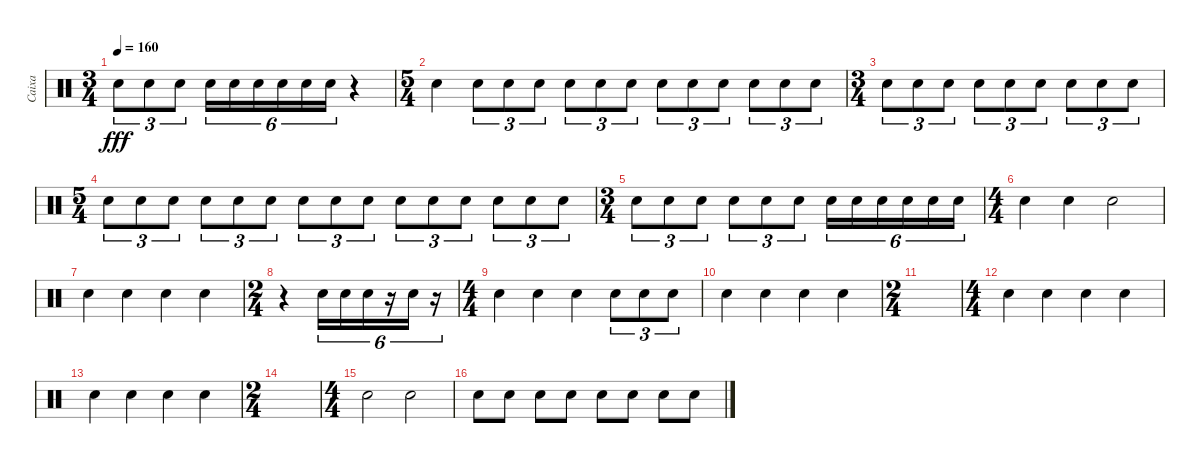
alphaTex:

\track ("Caixa" "Caixa") {instrument percussion}
\staff {score}
\articulation defaults
\ts (3 4)
\tempo 160
\clef neutral
\ks c "Electric Snare (hit)".8{tu (3 2) dy fff} "Electric Snare (hit)".8{tu (3 2)} "Electric Snare (hit)".8{tu (3 2)} "Electric Snare (hit)".16{tu (6 4)} "Electric Snare (hit)".16{tu (6 4)} "Electric Snare (hit)".16{tu (6 4)} "Electric Snare (hit)".16{tu (6 4)} "Electric Snare (hit)".16{tu (6 4)} "Electric Snare (hit)".16{tu (6 4)}
r.4 |
\ts (5 4)
"Electric Snare (hit)".4 "Electric Snare (hit)".8{tu (3 2)} "Electric Snare (hit)".8{tu (3 2)} "Electric Snare (hit)".8{tu (3 2)} "Electric Snare (hit)".8{tu (3 2)} "Electric Snare (hit)".8{tu (3 2)} "Electric Snare (hit)".8{tu (3 2)} "Electric Snare (hit)".8{tu (3 2)} "Electric Snare (hit)".8{tu (3 2)} "Electric Snare (hit)".8{tu (3 2)} "Electric Snare (hit)".8{tu (3 2)} "Electric Snare (hit)".8{tu (3 2)} "Electric Snare (hit)".8{tu (3 2)} |
\ts (3 4)
"Electric Snare (hit)".8{tu (3 2)} "Electric Snare (hit)".8{tu (3 2)} "Electric Snare (hit)".8{tu (3 2)} "Electric Snare (hit)".8{tu (3 2)} "Electric Snare (hit)".8{tu (3 2)} "Electric Snare (hit)".8{tu (3 2)} "Electric Snare (hit)".8{tu (3 2)} "Electric Snare (hit)".8{tu (3 2)} "Electric Snare (hit)".8{tu (3 2)} |
\ts (5 4)
"Electric Snare (hit)".8{tu (3 2)} "Electric Snare (hit)".8{tu (3 2)} "Electric Snare (hit)".8{tu (3 2)} "Electric Snare (hit)".8{tu (3 2)} "Electric Snare (hit)".8{tu (3 2)} "Electric Snare (hit)".8{tu (3 2)} "Electric Snare (hit)".8{tu (3 2)} "Electric Snare (hit)".8{tu (3 2)} "Electric Snare (hit)".8{tu (3 2)} "Electric Snare (hit)".8{tu (3 2)} "Electric Snare (hit)".8{tu (3 2)} "Electric Snare (hit)".8{tu (3 2)} "Electric Snare (hit)".8{tu (3 2)} "Electric Snare (hit)".8{tu (3 2)} "Electric Snare (hit)".8{tu (3 2)} |
\ts (3 4)
"Electric Snare (hit)".8{tu (3 2)} "Electric Snare (hit)".8{tu (3 2)} "Electric Snare (hit)".8{tu (3 2)} "Electric Snare (hit)".8{tu (3 2)} "Electric Snare (hit)".8{tu (3 2)} "Electric Snare (hit)".8{tu (3 2)} "Electric Snare (hit)".16{tu (6 4)} "Electric Snare (hit)".16{tu (6 4)} "Electric Snare (hit)".16{tu (6 4)} "Electric Snare (hit)".16{tu (6 4)} "Electric Snare (hit)".16{tu (6 4)} "Electric Snare (hit)".16{tu (6 4)} |
\ts (4 4)
"Electric Snare (hit)".4 "Electric Snare (hit)".4 "Electric Snare (hit)".2 |
"Electric Snare (hit)".4 "Electric Snare (hit)".4 "Electric Snare (hit)".4 "Electric Snare (hit)".4 |
\ts (2 4)
r.4 "Electric Snare (hit)".16{tu (6 4)} "Electric Snare (hit)".16{tu (6 4)} "Electric Snare (hit)".16{tu (6 4)} r.16{tu (6 4)} "Electric Snare (hit)".16{tu (6 4)} r.16{tu (6 4)} |
\ts (4 4)
"Electric Snare (hit)".4 "Electric Snare (hit)".4 "Electric Snare (hit)".4 "Electric Snare (hit)".8{tu (3 2)} "Electric Snare (hit)".8{tu (3 2)} "Electric Snare (hit)".8{tu (3 2)} |
"Electric Snare (hit)".4 "Electric Snare (hit)".4 "Electric Snare (hit)".4 "Electric Snare (hit)".4 |
\ts (2 4)
|
\ts (4 4)
"Electric Snare (hit)".4 "Electric Snare (hit)".4 "Electric Snare (hit)".4 "Electric Snare (hit)".4 |
"Electric Snare (hit)".4 "Electric Snare (hit)".4 "Electric Snare (hit)".4 "Electric Snare (hit)".4 |
\ts (2 4)
|
\ts (4 4)
"Electric Snare (hit)".2 "Electric Snare (hit)".2 |
"Electric Snare (hit)".8 "Electric Snare (hit)".8 "Electric Snare (hit)".8 "Electric Snare (hit)".8 "Electric Snare (hit)".8 "Electric Snare (hit)".8 "Electric Snare (hit)".8 "Electric Snare (hit)".8
